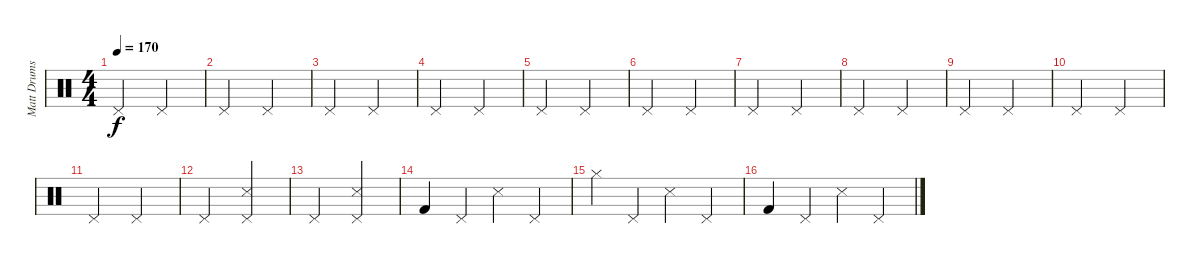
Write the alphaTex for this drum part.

\track ("Matt Drums" "Matt Drums") {instrument percussion}
\staff {score}
\articulation defaults
\ts (4 4)
\tempo 170
\clef neutral
\ks c "Pedal Hi-Hat (hit)".2{dy f} "Pedal Hi-Hat (hit)".2
|
"Pedal Hi-Hat (hit)".2 "Pedal Hi-Hat (hit)".2 |
"Pedal Hi-Hat (hit)".2 "Pedal Hi-Hat (hit)".2 |
"Pedal Hi-Hat (hit)".2 "Pedal Hi-Hat (hit)".2 |
"Pedal Hi-Hat (hit)".2 "Pedal Hi-Hat (hit)".2 |
"Pedal Hi-Hat (hit)".2 "Pedal Hi-Hat (hit)".2 |
"Pedal Hi-Hat (hit)".2 "Pedal Hi-Hat (hit)".2 |
"Pedal Hi-Hat (hit)".2 "Pedal Hi-Hat (hit)".2 |
"Pedal Hi-Hat (hit)".2 "Pedal Hi-Hat (hit)".2 |
"Pedal Hi-Hat (hit)".2 "Pedal Hi-Hat (hit)".2 |
"Pedal Hi-Hat (hit)".2 "Pedal Hi-Hat (hit)".2 |
"Pedal Hi-Hat (hit)".2 ("Pedal Hi-Hat (hit)" "Snare (side stick) 3").2 |
"Pedal Hi-Hat (hit)".2 ("Pedal Hi-Hat (hit)" "Snare (side stick) 3").2 |
"Kick (hit) 2".4 "Pedal Hi-Hat (hit)".4 "Snare (side stick) 3".4 "Pedal Hi-Hat (hit)".4 |
"Hi-Hat (closed)".4 "Pedal Hi-Hat (hit)".4 "Snare (side stick) 3".4 "Pedal Hi-Hat (hit)".4 |
"Kick (hit) 2".4 "Pedal Hi-Hat (hit)".4 "Snare (side stick) 3".4 "Pedal Hi-Hat (hit)".4
